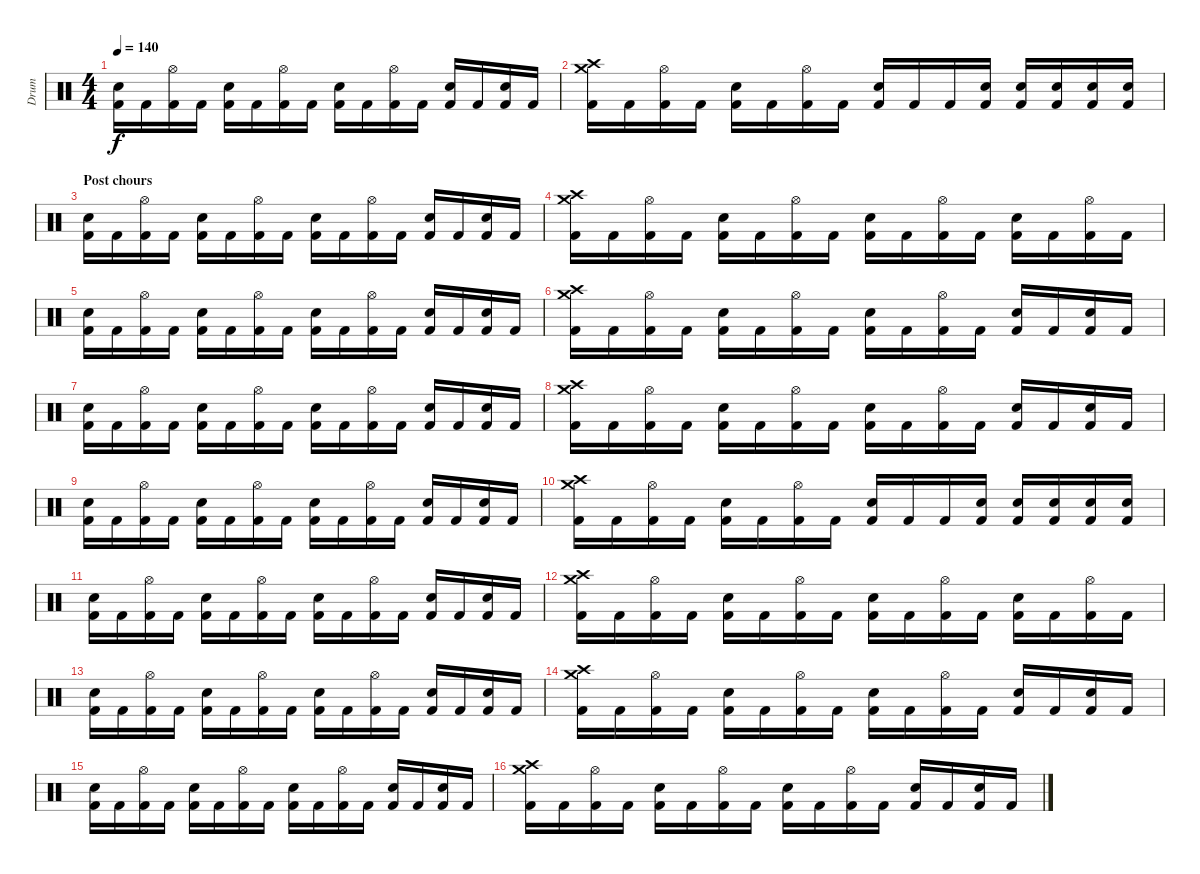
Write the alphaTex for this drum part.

\track ("Drum" "Drum") {instrument percussion}
\staff {score}
\articulation defaults
\ts (4 4)
\tempo 140
\clef neutral
\ks c
("Electric Snare (hit)" "Kick (hit) 2").16{dy f} "Kick (hit) 2".16 ("Hi-Hat (open)" "Kick (hit) 2").16 "Kick (hit) 2".16 ("Electric Snare (hit)" "Kick (hit) 2").16 "Kick (hit) 2".16 ("Hi-Hat (open)" "Kick (hit) 2").16 "Kick (hit) 2".16 ("Electric Snare (hit)" "Kick (hit) 2").16 "Kick (hit) 2".16 ("Hi-Hat (open)" "Kick (hit) 2").16 "Kick (hit) 2".16 ("Electric Snare (hit)" "Kick (hit) 2").16 "Kick (hit) 2".16 ("Electric Snare (hit)" "Kick (hit) 2").16 "Kick (hit) 2".16 |
("Crash medium (hit)" "Crash high (hit)" "Kick (hit) 2").16 "Kick (hit) 2".16 ("Hi-Hat (open)" "Kick (hit) 2").16 "Kick (hit) 2".16 ("Electric Snare (hit)" "Kick (hit) 2").16 "Kick (hit) 2".16 ("Hi-Hat (open)" "Kick (hit) 2").16 "Kick (hit) 2".16 ("Electric Snare (hit)" "Kick (hit) 2").16 "Kick (hit) 2".16 "Kick (hit) 2".16 ("Electric Snare (hit)" "Kick (hit) 2").16 ("Electric Snare (hit)" "Kick (hit) 2").16 ("Electric Snare (hit)" "Kick (hit) 2").16 ("Electric Snare (hit)" "Kick (hit) 2").16 ("Electric Snare (hit)" "Kick (hit) 2").16 |
\section ("" "Post chours")
("Electric Snare (hit)" "Kick (hit) 2").16 "Kick (hit) 2".16 ("Hi-Hat (open)" "Kick (hit) 2").16 "Kick (hit) 2".16 ("Electric Snare (hit)" "Kick (hit) 2").16 "Kick (hit) 2".16 ("Hi-Hat (open)" "Kick (hit) 2").16 "Kick (hit) 2".16 ("Electric Snare (hit)" "Kick (hit) 2").16 "Kick (hit) 2".16 ("Hi-Hat (open)" "Kick (hit) 2").16 "Kick (hit) 2".16 ("Electric Snare (hit)" "Kick (hit) 2").16 "Kick (hit) 2".16 ("Electric Snare (hit)" "Kick (hit) 2").16 "Kick (hit) 2".16 |
("Crash medium (hit)" "Crash high (hit)" "Kick (hit) 2").16 "Kick (hit) 2".16 ("Hi-Hat (open)" "Kick (hit) 2").16 "Kick (hit) 2".16 ("Electric Snare (hit)" "Kick (hit) 2").16 "Kick (hit) 2".16 ("Hi-Hat (open)" "Kick (hit) 2").16 "Kick (hit) 2".16 ("Electric Snare (hit)" "Kick (hit) 2").16 "Kick (hit) 2".16 ("Hi-Hat (open)" "Kick (hit) 2").16 "Kick (hit) 2".16 ("Electric Snare (hit)" "Kick (hit) 2").16 "Kick (hit) 2".16 ("Hi-Hat (open)" "Kick (hit) 2").16 "Kick (hit) 2".16 |
("Electric Snare (hit)" "Kick (hit) 2").16 "Kick (hit) 2".16 ("Hi-Hat (open)" "Kick (hit) 2").16 "Kick (hit) 2".16 ("Electric Snare (hit)" "Kick (hit) 2").16 "Kick (hit) 2".16 ("Hi-Hat (open)" "Kick (hit) 2").16 "Kick (hit) 2".16 ("Electric Snare (hit)" "Kick (hit) 2").16 "Kick (hit) 2".16 ("Hi-Hat (open)" "Kick (hit) 2").16 "Kick (hit) 2".16 ("Electric Snare (hit)" "Kick (hit) 2").16 "Kick (hit) 2".16 ("Electric Snare (hit)" "Kick (hit) 2").16 "Kick (hit) 2".16 |
("Crash medium (hit)" "Crash high (hit)" "Kick (hit) 2").16 "Kick (hit) 2".16 ("Hi-Hat (open)" "Kick (hit) 2").16 "Kick (hit) 2".16 ("Electric Snare (hit)" "Kick (hit) 2").16 "Kick (hit) 2".16 ("Hi-Hat (open)" "Kick (hit) 2").16 "Kick (hit) 2".16 ("Electric Snare (hit)" "Kick (hit) 2").16 "Kick (hit) 2".16 ("Hi-Hat (open)" "Kick (hit) 2").16 "Kick (hit) 2".16 ("Electric Snare (hit)" "Kick (hit) 2").16 "Kick (hit) 2".16 ("Electric Snare (hit)" "Kick (hit) 2").16 "Kick (hit) 2".16 |
("Electric Snare (hit)" "Kick (hit) 2").16 "Kick (hit) 2".16 ("Hi-Hat (open)" "Kick (hit) 2").16 "Kick (hit) 2".16 ("Electric Snare (hit)" "Kick (hit) 2").16 "Kick (hit) 2".16 ("Hi-Hat (open)" "Kick (hit) 2").16 "Kick (hit) 2".16 ("Electric Snare (hit)" "Kick (hit) 2").16 "Kick (hit) 2".16 ("Hi-Hat (open)" "Kick (hit) 2").16 "Kick (hit) 2".16 ("Electric Snare (hit)" "Kick (hit) 2").16 "Kick (hit) 2".16 ("Electric Snare (hit)" "Kick (hit) 2").16 "Kick (hit) 2".16 |
("Crash medium (hit)" "Crash high (hit)" "Kick (hit) 2").16 "Kick (hit) 2".16 ("Hi-Hat (open)" "Kick (hit) 2").16 "Kick (hit) 2".16 ("Electric Snare (hit)" "Kick (hit) 2").16 "Kick (hit) 2".16 ("Hi-Hat (open)" "Kick (hit) 2").16 "Kick (hit) 2".16 ("Electric Snare (hit)" "Kick (hit) 2").16 "Kick (hit) 2".16 ("Hi-Hat (open)" "Kick (hit) 2").16 "Kick (hit) 2".16 ("Electric Snare (hit)" "Kick (hit) 2").16 "Kick (hit) 2".16 ("Electric Snare (hit)" "Kick (hit) 2").16 "Kick (hit) 2".16 |
("Electric Snare (hit)" "Kick (hit) 2").16 "Kick (hit) 2".16 ("Hi-Hat (open)" "Kick (hit) 2").16 "Kick (hit) 2".16 ("Electric Snare (hit)" "Kick (hit) 2").16 "Kick (hit) 2".16 ("Hi-Hat (open)" "Kick (hit) 2").16 "Kick (hit) 2".16 ("Electric Snare (hit)" "Kick (hit) 2").16 "Kick (hit) 2".16 ("Hi-Hat (open)" "Kick (hit) 2").16 "Kick (hit) 2".16 ("Electric Snare (hit)" "Kick (hit) 2").16 "Kick (hit) 2".16 ("Electric Snare (hit)" "Kick (hit) 2").16 "Kick (hit) 2".16 |
("Crash medium (hit)" "Crash high (hit)" "Kick (hit) 2").16 "Kick (hit) 2".16 ("Hi-Hat (open)" "Kick (hit) 2").16 "Kick (hit) 2".16 ("Electric Snare (hit)" "Kick (hit) 2").16 "Kick (hit) 2".16 ("Hi-Hat (open)" "Kick (hit) 2").16 "Kick (hit) 2".16 ("Electric Snare (hit)" "Kick (hit) 2").16 "Kick (hit) 2".16 "Kick (hit) 2".16 ("Electric Snare (hit)" "Kick (hit) 2").16 ("Electric Snare (hit)" "Kick (hit) 2").16 ("Electric Snare (hit)" "Kick (hit) 2").16 ("Electric Snare (hit)" "Kick (hit) 2").16 ("Electric Snare (hit)" "Kick (hit) 2").16 |
("Electric Snare (hit)" "Kick (hit) 2").16 "Kick (hit) 2".16 ("Hi-Hat (open)" "Kick (hit) 2").16 "Kick (hit) 2".16 ("Electric Snare (hit)" "Kick (hit) 2").16 "Kick (hit) 2".16 ("Hi-Hat (open)" "Kick (hit) 2").16 "Kick (hit) 2".16 ("Electric Snare (hit)" "Kick (hit) 2").16 "Kick (hit) 2".16 ("Hi-Hat (open)" "Kick (hit) 2").16 "Kick (hit) 2".16 ("Electric Snare (hit)" "Kick (hit) 2").16 "Kick (hit) 2".16 ("Electric Snare (hit)" "Kick (hit) 2").16 "Kick (hit) 2".16 |
("Crash medium (hit)" "Crash high (hit)" "Kick (hit) 2").16 "Kick (hit) 2".16 ("Hi-Hat (open)" "Kick (hit) 2").16 "Kick (hit) 2".16 ("Electric Snare (hit)" "Kick (hit) 2").16 "Kick (hit) 2".16 ("Hi-Hat (open)" "Kick (hit) 2").16 "Kick (hit) 2".16 ("Electric Snare (hit)" "Kick (hit) 2").16 "Kick (hit) 2".16 ("Hi-Hat (open)" "Kick (hit) 2").16 "Kick (hit) 2".16 ("Electric Snare (hit)" "Kick (hit) 2").16 "Kick (hit) 2".16 ("Hi-Hat (open)" "Kick (hit) 2").16 "Kick (hit) 2".16 |
("Electric Snare (hit)" "Kick (hit) 2").16 "Kick (hit) 2".16 ("Hi-Hat (open)" "Kick (hit) 2").16 "Kick (hit) 2".16 ("Electric Snare (hit)" "Kick (hit) 2").16 "Kick (hit) 2".16 ("Hi-Hat (open)" "Kick (hit) 2").16 "Kick (hit) 2".16 ("Electric Snare (hit)" "Kick (hit) 2").16 "Kick (hit) 2".16 ("Hi-Hat (open)" "Kick (hit) 2").16 "Kick (hit) 2".16 ("Electric Snare (hit)" "Kick (hit) 2").16 "Kick (hit) 2".16 ("Electric Snare (hit)" "Kick (hit) 2").16 "Kick (hit) 2".16 |
("Crash medium (hit)" "Crash high (hit)" "Kick (hit) 2").16 "Kick (hit) 2".16 ("Hi-Hat (open)" "Kick (hit) 2").16 "Kick (hit) 2".16 ("Electric Snare (hit)" "Kick (hit) 2").16 "Kick (hit) 2".16 ("Hi-Hat (open)" "Kick (hit) 2").16 "Kick (hit) 2".16 ("Electric Snare (hit)" "Kick (hit) 2").16 "Kick (hit) 2".16 ("Hi-Hat (open)" "Kick (hit) 2").16 "Kick (hit) 2".16 ("Electric Snare (hit)" "Kick (hit) 2").16 "Kick (hit) 2".16 ("Electric Snare (hit)" "Kick (hit) 2").16 "Kick (hit) 2".16 |
("Electric Snare (hit)" "Kick (hit) 2").16 "Kick (hit) 2".16 ("Hi-Hat (open)" "Kick (hit) 2").16 "Kick (hit) 2".16 ("Electric Snare (hit)" "Kick (hit) 2").16 "Kick (hit) 2".16 ("Hi-Hat (open)" "Kick (hit) 2").16 "Kick (hit) 2".16 ("Electric Snare (hit)" "Kick (hit) 2").16 "Kick (hit) 2".16 ("Hi-Hat (open)" "Kick (hit) 2").16 "Kick (hit) 2".16 ("Electric Snare (hit)" "Kick (hit) 2").16 "Kick (hit) 2".16 ("Electric Snare (hit)" "Kick (hit) 2").16 "Kick (hit) 2".16 |
("Crash medium (hit)" "Crash high (hit)" "Kick (hit) 2").16 "Kick (hit) 2".16 ("Hi-Hat (open)" "Kick (hit) 2").16 "Kick (hit) 2".16 ("Electric Snare (hit)" "Kick (hit) 2").16 "Kick (hit) 2".16 ("Hi-Hat (open)" "Kick (hit) 2").16 "Kick (hit) 2".16 ("Electric Snare (hit)" "Kick (hit) 2").16 "Kick (hit) 2".16 ("Hi-Hat (open)" "Kick (hit) 2").16 "Kick (hit) 2".16 ("Electric Snare (hit)" "Kick (hit) 2").16 "Kick (hit) 2".16 ("Electric Snare (hit)" "Kick (hit) 2").16 "Kick (hit) 2".16
